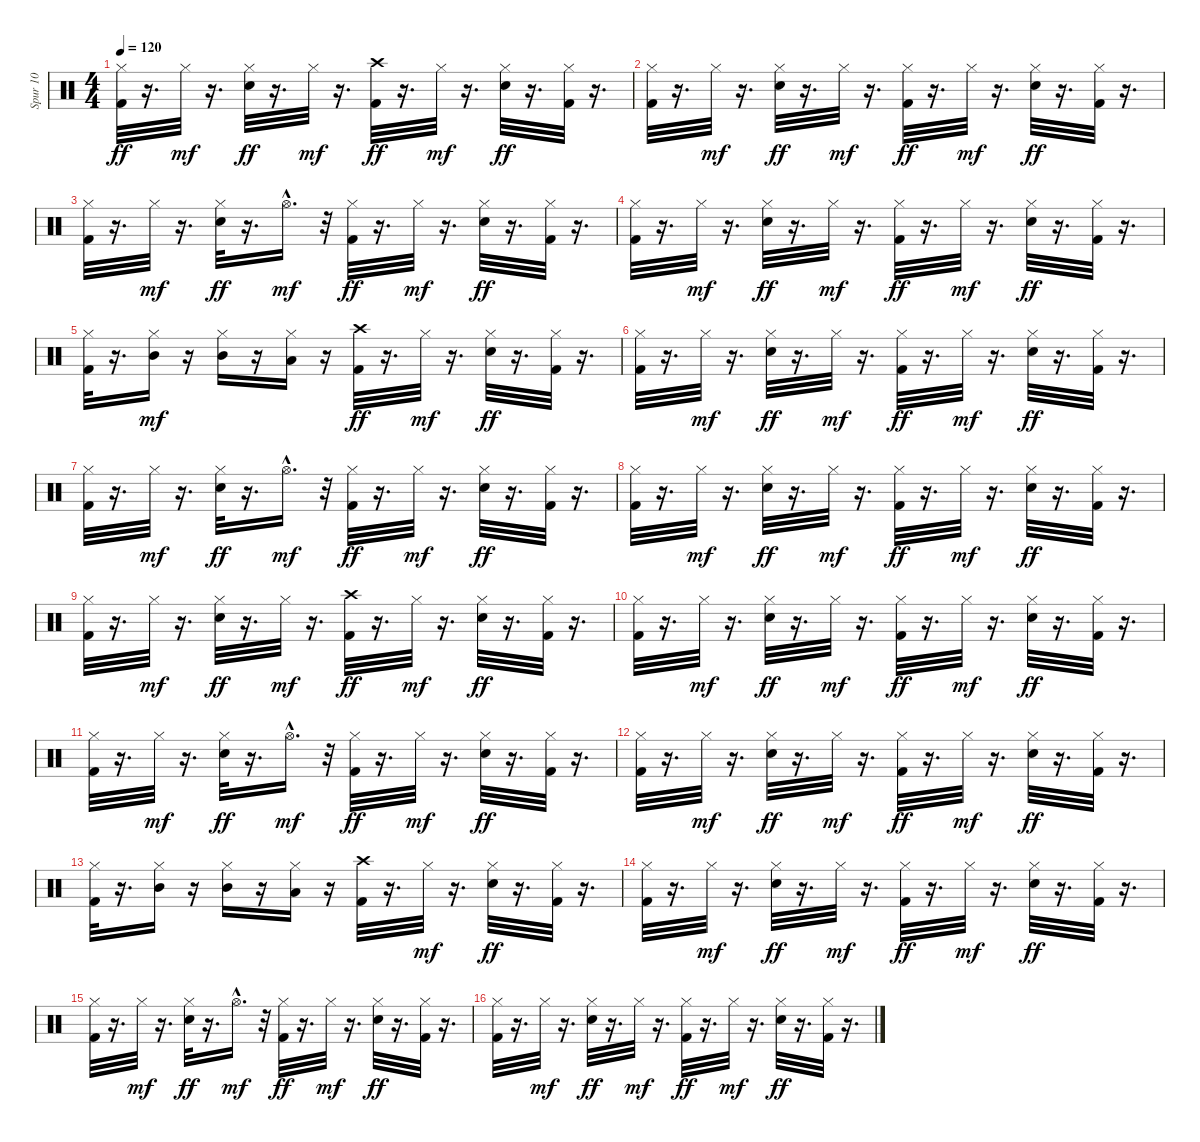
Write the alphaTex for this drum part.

\track ("Spur 10" "Spur 10") {instrument percussion}
\staff {score}
\articulation defaults
\ts (4 4)
\tempo 120
\clef neutral
\ks c
("Hi-Hat (closed)" "Kick (hit) 2").32{dy ff} r.16{d} "Hi-Hat (closed)".32{dy mf} r.16{d} ("Hi-Hat (closed)" "Snare (hit) 2").32{dy ff} r.16{d} "Hi-Hat (closed)".32{dy mf} r.16{d} ("Crash high (hit)" "Kick (hit) 2").32{dy ff} r.16{d} "Hi-Hat (closed)".32{dy mf} r.16{d} ("Hi-Hat (closed)" "Snare (hit) 2").32{dy ff} r.16{d} ("Hi-Hat (closed)" "Kick (hit) 2").32 r.16{d} |
("Hi-Hat (closed)" "Kick (hit) 2").32 r.16{d} "Hi-Hat (closed)".32{dy mf} r.16{d} ("Hi-Hat (closed)" "Snare (hit) 2").32{dy ff} r.16{d} "Hi-Hat (closed)".32{dy mf} r.16{d} ("Hi-Hat (closed)" "Kick (hit) 2").32{dy ff} r.16{d} "Hi-Hat (closed)".32{dy mf} r.16{d} ("Hi-Hat (closed)" "Snare (hit) 2").32{dy ff} r.16{d} ("Hi-Hat (closed)" "Kick (hit) 2").32 r.16{d} |
("Hi-Hat (closed)" "Kick (hit) 2").32 r.16{d} "Hi-Hat (closed)".32{dy mf} r.16{d} ("Hi-Hat (closed)" "Snare (hit) 2").32{dy ff} r.16{d} "Hi-Hat (open)"{hac}.16{d dy mf} r.32 ("Hi-Hat (closed)" "Kick (hit) 2").32{dy ff} r.16{d} "Hi-Hat (closed)".32{dy mf} r.16{d} ("Hi-Hat (closed)" "Snare (hit) 2").32{dy ff} r.16{d} ("Hi-Hat (closed)" "Kick (hit) 2").32 r.16{d} |
("Hi-Hat (closed)" "Kick (hit) 2").32 r.16{d} "Hi-Hat (closed)".32{dy mf} r.16{d} ("Hi-Hat (closed)" "Snare (hit) 2").32{dy ff} r.16{d} "Hi-Hat (closed)".32{dy mf} r.16{d} ("Hi-Hat (closed)" "Kick (hit) 2").32{dy ff} r.16{d} "Hi-Hat (closed)".32{dy mf} r.16{d} ("Hi-Hat (closed)" "Snare (hit) 2").32{dy ff} r.16{d} ("Hi-Hat (closed)" "Kick (hit) 2").32 r.16{d} |
("Hi-Hat (closed)" "Kick (hit) 2").32 r.16{d} ("Hi-Hat (closed)" "Mid Tom (hit)").16{dy mf} r.16 ("Hi-Hat (closed)" "Mid Tom (hit)").16 r.16 ("Hi-Hat (closed)" "Low Tom (hit)").16 r.16 ("Crash high (hit)" "Kick (hit) 2").32{dy ff} r.16{d} "Hi-Hat (closed)".32{dy mf} r.16{d} ("Hi-Hat (closed)" "Snare (hit) 2").32{dy ff} r.16{d} ("Hi-Hat (closed)" "Kick (hit) 2").32 r.16{d} |
("Hi-Hat (closed)" "Kick (hit) 2").32 r.16{d} "Hi-Hat (closed)".32{dy mf} r.16{d} ("Hi-Hat (closed)" "Snare (hit) 2").32{dy ff} r.16{d} "Hi-Hat (closed)".32{dy mf} r.16{d} ("Hi-Hat (closed)" "Kick (hit) 2").32{dy ff} r.16{d} "Hi-Hat (closed)".32{dy mf} r.16{d} ("Hi-Hat (closed)" "Snare (hit) 2").32{dy ff} r.16{d} ("Hi-Hat (closed)" "Kick (hit) 2").32 r.16{d} |
("Hi-Hat (closed)" "Kick (hit) 2").32 r.16{d} "Hi-Hat (closed)".32{dy mf} r.16{d} ("Hi-Hat (closed)" "Snare (hit) 2").32{dy ff} r.16{d} "Hi-Hat (open)"{hac}.16{d dy mf} r.32 ("Hi-Hat (closed)" "Kick (hit) 2").32{dy ff} r.16{d} "Hi-Hat (closed)".32{dy mf} r.16{d} ("Hi-Hat (closed)" "Snare (hit) 2").32{dy ff} r.16{d} ("Hi-Hat (closed)" "Kick (hit) 2").32 r.16{d} |
("Hi-Hat (closed)" "Kick (hit) 2").32 r.16{d} "Hi-Hat (closed)".32{dy mf} r.16{d} ("Hi-Hat (closed)" "Snare (hit) 2").32{dy ff} r.16{d} "Hi-Hat (closed)".32{dy mf} r.16{d} ("Hi-Hat (closed)" "Kick (hit) 2").32{dy ff} r.16{d} "Hi-Hat (closed)".32{dy mf} r.16{d} ("Hi-Hat (closed)" "Snare (hit) 2").32{dy ff} r.16{d} ("Hi-Hat (closed)" "Kick (hit) 2").32 r.16{d} |
("Hi-Hat (closed)" "Kick (hit) 2").32 r.16{d} "Hi-Hat (closed)".32{dy mf} r.16{d} ("Hi-Hat (closed)" "Snare (hit) 2").32{dy ff} r.16{d} "Hi-Hat (closed)".32{dy mf} r.16{d} ("Crash high (hit)" "Kick (hit) 2").32{dy ff} r.16{d} "Hi-Hat (closed)".32{dy mf} r.16{d} ("Hi-Hat (closed)" "Snare (hit) 2").32{dy ff} r.16{d} ("Hi-Hat (closed)" "Kick (hit) 2").32 r.16{d} |
("Hi-Hat (closed)" "Kick (hit) 2").32 r.16{d} "Hi-Hat (closed)".32{dy mf} r.16{d} ("Hi-Hat (closed)" "Snare (hit) 2").32{dy ff} r.16{d} "Hi-Hat (closed)".32{dy mf} r.16{d} ("Hi-Hat (closed)" "Kick (hit) 2").32{dy ff} r.16{d} "Hi-Hat (closed)".32{dy mf} r.16{d} ("Hi-Hat (closed)" "Snare (hit) 2").32{dy ff} r.16{d} ("Hi-Hat (closed)" "Kick (hit) 2").32 r.16{d} |
("Hi-Hat (closed)" "Kick (hit) 2").32 r.16{d} "Hi-Hat (closed)".32{dy mf} r.16{d} ("Hi-Hat (closed)" "Snare (hit) 2").32{dy ff} r.16{d} "Hi-Hat (open)"{hac}.16{d dy mf} r.32 ("Hi-Hat (closed)" "Kick (hit) 2").32{dy ff} r.16{d} "Hi-Hat (closed)".32{dy mf} r.16{d} ("Hi-Hat (closed)" "Snare (hit) 2").32{dy ff} r.16{d} ("Hi-Hat (closed)" "Kick (hit) 2").32 r.16{d} |
("Hi-Hat (closed)" "Kick (hit) 2").32 r.16{d} "Hi-Hat (closed)".32{dy mf} r.16{d} ("Hi-Hat (closed)" "Snare (hit) 2").32{dy ff} r.16{d} "Hi-Hat (closed)".32{dy mf} r.16{d} ("Hi-Hat (closed)" "Kick (hit) 2").32{dy ff} r.16{d} "Hi-Hat (closed)".32{dy mf} r.16{d} ("Hi-Hat (closed)" "Snare (hit) 2").32{dy ff} r.16{d} ("Hi-Hat (closed)" "Kick (hit) 2").32 r.16{d} |
("Hi-Hat (closed)" "Kick (hit) 2").32 r.16{d} ("Hi-Hat (closed)" "Mid Tom (hit)").16 r.16 ("Hi-Hat (closed)" "Mid Tom (hit)").16 r.16 ("Hi-Hat (closed)" "Low Tom (hit)").16 r.16 ("Crash high (hit)" "Kick (hit) 2").32 r.16{d} "Hi-Hat (closed)".32{dy mf} r.16{d} ("Hi-Hat (closed)" "Snare (hit) 2").32{dy ff} r.16{d} ("Hi-Hat (closed)" "Kick (hit) 2").32 r.16{d} |
("Hi-Hat (closed)" "Kick (hit) 2").32 r.16{d} "Hi-Hat (closed)".32{dy mf} r.16{d} ("Hi-Hat (closed)" "Snare (hit) 2").32{dy ff} r.16{d} "Hi-Hat (closed)".32{dy mf} r.16{d} ("Hi-Hat (closed)" "Kick (hit) 2").32{dy ff} r.16{d} "Hi-Hat (closed)".32{dy mf} r.16{d} ("Hi-Hat (closed)" "Snare (hit) 2").32{dy ff} r.16{d} ("Hi-Hat (closed)" "Kick (hit) 2").32 r.16{d} |
("Hi-Hat (closed)" "Kick (hit) 2").32 r.16{d} "Hi-Hat (closed)".32{dy mf} r.16{d} ("Hi-Hat (closed)" "Snare (hit) 2").32{dy ff} r.16{d} "Hi-Hat (open)"{hac}.16{d dy mf} r.32 ("Hi-Hat (closed)" "Kick (hit) 2").32{dy ff} r.16{d} "Hi-Hat (closed)".32{dy mf} r.16{d} ("Hi-Hat (closed)" "Snare (hit) 2").32{dy ff} r.16{d} ("Hi-Hat (closed)" "Kick (hit) 2").32 r.16{d} |
("Hi-Hat (closed)" "Kick (hit) 2").32 r.16{d} "Hi-Hat (closed)".32{dy mf} r.16{d} ("Hi-Hat (closed)" "Snare (hit) 2").32{dy ff} r.16{d} "Hi-Hat (closed)".32{dy mf} r.16{d} ("Hi-Hat (closed)" "Kick (hit) 2").32{dy ff} r.16{d} "Hi-Hat (closed)".32{dy mf} r.16{d} ("Hi-Hat (closed)" "Snare (hit) 2").32{dy ff} r.16{d} ("Hi-Hat (closed)" "Kick (hit) 2").32 r.16{d}
